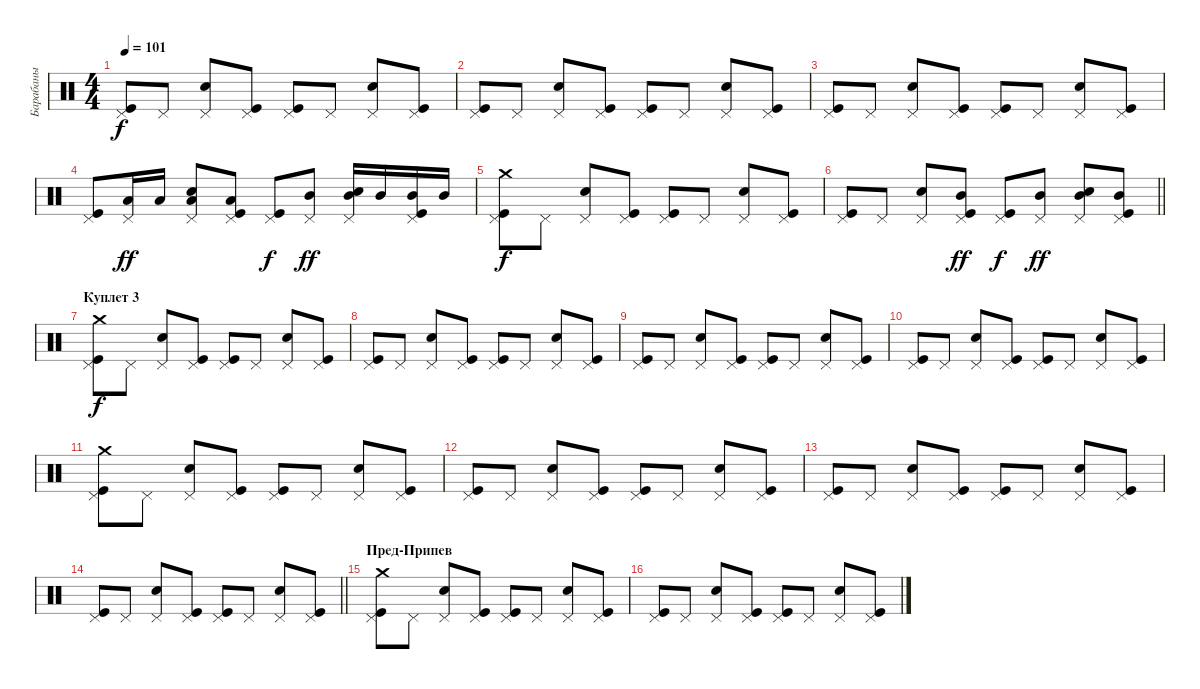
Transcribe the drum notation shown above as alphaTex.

\track ("Барабаны" "Барабаны") {instrument percussion}
\staff {score}
\articulation defaults
\ts (4 4)
\tempo 101
\clef neutral
\ks c
("Kick (hit)" "Pedal Hi-Hat (hit)").8{dy f} "Pedal Hi-Hat (hit)".8 ("Snare (hit) 2" "Pedal Hi-Hat (hit)").8 ("Kick (hit)" "Pedal Hi-Hat (hit)").8 ("Kick (hit)" "Pedal Hi-Hat (hit)").8 "Pedal Hi-Hat (hit)".8 ("Snare (hit) 2" "Pedal Hi-Hat (hit)").8 ("Kick (hit)" "Pedal Hi-Hat (hit)").8 |
("Kick (hit)" "Pedal Hi-Hat (hit)").8 "Pedal Hi-Hat (hit)".8 ("Snare (hit) 2" "Pedal Hi-Hat (hit)").8 ("Kick (hit)" "Pedal Hi-Hat (hit)").8 ("Kick (hit)" "Pedal Hi-Hat (hit)").8 "Pedal Hi-Hat (hit)".8 ("Snare (hit) 2" "Pedal Hi-Hat (hit)").8 ("Kick (hit)" "Pedal Hi-Hat (hit)").8 |
("Kick (hit)" "Pedal Hi-Hat (hit)").8 "Pedal Hi-Hat (hit)".8 ("Snare (hit) 2" "Pedal Hi-Hat (hit)").8 ("Kick (hit)" "Pedal Hi-Hat (hit)").8 ("Kick (hit)" "Pedal Hi-Hat (hit)").8 "Pedal Hi-Hat (hit)".8 ("Snare (hit) 2" "Pedal Hi-Hat (hit)").8 ("Kick (hit)" "Pedal Hi-Hat (hit)").8 |
("Kick (hit)" "Pedal Hi-Hat (hit)").8 ("Pedal Hi-Hat (hit)" "Low Floor Tom (hit)").16{dy ff} "Low Floor Tom (hit)".16 ("Snare (hit) 2" "Pedal Hi-Hat (hit)" "Low Floor Tom (hit)").8 ("Kick (hit)" "Pedal Hi-Hat (hit)" "Low Floor Tom (hit)").8 ("Kick (hit)" "Pedal Hi-Hat (hit)").8{dy f} ("Pedal Hi-Hat (hit)" "Mid Tom (hit)").8{dy ff} ("Snare (hit) 2" "Pedal Hi-Hat (hit)" "Mid Tom (hit)").16 "Mid Tom (hit)".16 ("Kick (hit)" "Pedal Hi-Hat (hit)" "Mid Tom (hit)").16 "Mid Tom (hit)".16 |
("Kick (hit)" "Pedal Hi-Hat (hit)" "Crash medium (hit)").8{dy f} "Pedal Hi-Hat (hit)".8 ("Snare (hit) 2" "Pedal Hi-Hat (hit)").8 ("Kick (hit)" "Pedal Hi-Hat (hit)").8 ("Kick (hit)" "Pedal Hi-Hat (hit)").8 "Pedal Hi-Hat (hit)".8 ("Snare (hit) 2" "Pedal Hi-Hat (hit)").8 ("Kick (hit)" "Pedal Hi-Hat (hit)").8 |
\barLineRight lightlight
("Kick (hit)" "Pedal Hi-Hat (hit)").8 "Pedal Hi-Hat (hit)".8 ("Snare (hit) 2" "Pedal Hi-Hat (hit)").8 ("Kick (hit)" "Pedal Hi-Hat (hit)" "Mid Tom (hit)").8{dy ff} ("Kick (hit)" "Pedal Hi-Hat (hit)").8{dy f} ("Pedal Hi-Hat (hit)" "Mid Tom (hit)").8{dy ff} ("Snare (hit) 2" "Pedal Hi-Hat (hit)" "Mid Tom (hit)").8 ("Kick (hit)" "Pedal Hi-Hat (hit)" "Mid Tom (hit)").8 |
\section ("" "Куплет 3")
("Kick (hit)" "Pedal Hi-Hat (hit)" "Crash medium (hit)").8{dy f} "Pedal Hi-Hat (hit)".8 ("Snare (hit) 2" "Pedal Hi-Hat (hit)").8 ("Kick (hit)" "Pedal Hi-Hat (hit)").8 ("Kick (hit)" "Pedal Hi-Hat (hit)").8 "Pedal Hi-Hat (hit)".8 ("Snare (hit) 2" "Pedal Hi-Hat (hit)").8 ("Kick (hit)" "Pedal Hi-Hat (hit)").8 |
("Kick (hit)" "Pedal Hi-Hat (hit)").8 "Pedal Hi-Hat (hit)".8 ("Snare (hit) 2" "Pedal Hi-Hat (hit)").8 ("Kick (hit)" "Pedal Hi-Hat (hit)").8 ("Kick (hit)" "Pedal Hi-Hat (hit)").8 "Pedal Hi-Hat (hit)".8 ("Snare (hit) 2" "Pedal Hi-Hat (hit)").8 ("Kick (hit)" "Pedal Hi-Hat (hit)").8 |
("Kick (hit)" "Pedal Hi-Hat (hit)").8 "Pedal Hi-Hat (hit)".8 ("Snare (hit) 2" "Pedal Hi-Hat (hit)").8 ("Kick (hit)" "Pedal Hi-Hat (hit)").8 ("Kick (hit)" "Pedal Hi-Hat (hit)").8 "Pedal Hi-Hat (hit)".8 ("Snare (hit) 2" "Pedal Hi-Hat (hit)").8 ("Kick (hit)" "Pedal Hi-Hat (hit)").8 |
("Kick (hit)" "Pedal Hi-Hat (hit)").8 "Pedal Hi-Hat (hit)".8 ("Snare (hit) 2" "Pedal Hi-Hat (hit)").8 ("Kick (hit)" "Pedal Hi-Hat (hit)").8 ("Kick (hit)" "Pedal Hi-Hat (hit)").8 "Pedal Hi-Hat (hit)".8 ("Snare (hit) 2" "Pedal Hi-Hat (hit)").8 ("Kick (hit)" "Pedal Hi-Hat (hit)").8 |
("Kick (hit)" "Pedal Hi-Hat (hit)" "Crash medium (hit)").8 "Pedal Hi-Hat (hit)".8 ("Snare (hit) 2" "Pedal Hi-Hat (hit)").8 ("Kick (hit)" "Pedal Hi-Hat (hit)").8 ("Kick (hit)" "Pedal Hi-Hat (hit)").8 "Pedal Hi-Hat (hit)".8 ("Snare (hit) 2" "Pedal Hi-Hat (hit)").8 ("Kick (hit)" "Pedal Hi-Hat (hit)").8 |
("Kick (hit)" "Pedal Hi-Hat (hit)").8 "Pedal Hi-Hat (hit)".8 ("Snare (hit) 2" "Pedal Hi-Hat (hit)").8 ("Kick (hit)" "Pedal Hi-Hat (hit)").8 ("Kick (hit)" "Pedal Hi-Hat (hit)").8 "Pedal Hi-Hat (hit)".8 ("Snare (hit) 2" "Pedal Hi-Hat (hit)").8 ("Kick (hit)" "Pedal Hi-Hat (hit)").8 |
("Kick (hit)" "Pedal Hi-Hat (hit)").8 "Pedal Hi-Hat (hit)".8 ("Snare (hit) 2" "Pedal Hi-Hat (hit)").8 ("Kick (hit)" "Pedal Hi-Hat (hit)").8 ("Kick (hit)" "Pedal Hi-Hat (hit)").8 "Pedal Hi-Hat (hit)".8 ("Snare (hit) 2" "Pedal Hi-Hat (hit)").8 ("Kick (hit)" "Pedal Hi-Hat (hit)").8 |
\barLineRight lightlight
("Kick (hit)" "Pedal Hi-Hat (hit)").8 "Pedal Hi-Hat (hit)".8 ("Snare (hit) 2" "Pedal Hi-Hat (hit)").8 ("Kick (hit)" "Pedal Hi-Hat (hit)").8 ("Kick (hit)" "Pedal Hi-Hat (hit)").8 "Pedal Hi-Hat (hit)".8 ("Snare (hit) 2" "Pedal Hi-Hat (hit)").8 ("Kick (hit)" "Pedal Hi-Hat (hit)").8 |
\section ("" "Пред-Припев")
("Kick (hit)" "Pedal Hi-Hat (hit)" "Crash medium (hit)").8 "Pedal Hi-Hat (hit)".8 ("Snare (hit) 2" "Pedal Hi-Hat (hit)").8 ("Kick (hit)" "Pedal Hi-Hat (hit)").8 ("Kick (hit)" "Pedal Hi-Hat (hit)").8 "Pedal Hi-Hat (hit)".8 ("Snare (hit) 2" "Pedal Hi-Hat (hit)").8 ("Kick (hit)" "Pedal Hi-Hat (hit)").8 |
("Kick (hit)" "Pedal Hi-Hat (hit)").8 "Pedal Hi-Hat (hit)".8 ("Snare (hit) 2" "Pedal Hi-Hat (hit)").8 ("Kick (hit)" "Pedal Hi-Hat (hit)").8 ("Kick (hit)" "Pedal Hi-Hat (hit)").8 "Pedal Hi-Hat (hit)".8 ("Snare (hit) 2" "Pedal Hi-Hat (hit)").8 ("Kick (hit)" "Pedal Hi-Hat (hit)").8
